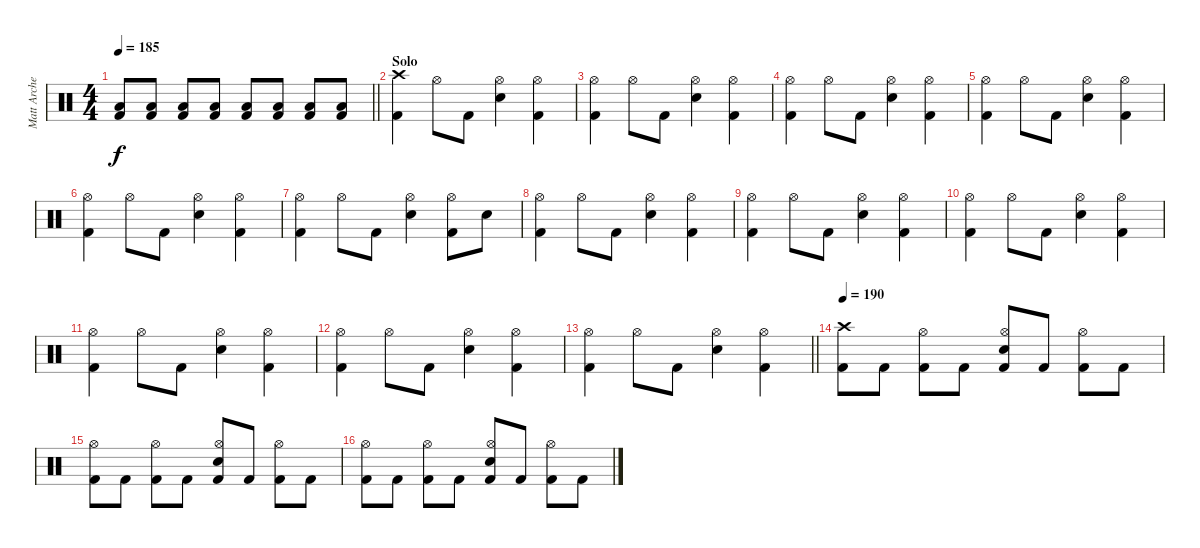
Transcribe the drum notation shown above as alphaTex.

\track ("Matt Archer" "Matt Arche") {instrument percussion}
\staff {score}
\articulation defaults
\ts (4 4)
\section ("" "")
\tempo 185
\clef neutral
\barLineRight lightlight
\ks c
("Low Tom (hit)" "Kick (hit) 2").8{dy f} ("Low Tom (hit)" "Kick (hit) 2").8 ("Low Tom (hit)" "Kick (hit) 2").8 ("Low Tom (hit)" "Kick (hit) 2").8 ("Low Tom (hit)" "Kick (hit) 2").8 ("Low Tom (hit)" "Kick (hit) 2").8 ("Low Tom (hit)" "Kick (hit) 2").8 ("Low Tom (hit)" "Kick (hit) 2").8 |
\section ("" "Solo")
("Crash high (hit)" "Kick (hit) 2").4 "Hi-Hat (open)".8 "Kick (hit) 2".8 ("Hi-Hat (open)" "Snare (hit) 2").4 ("Hi-Hat (open)" "Kick (hit) 2").4 |
("Hi-Hat (open)" "Kick (hit) 2").4 "Hi-Hat (open)".8 "Kick (hit) 2".8 ("Hi-Hat (open)" "Snare (hit) 2").4 ("Hi-Hat (open)" "Kick (hit) 2").4 |
("Hi-Hat (open)" "Kick (hit) 2").4 "Hi-Hat (open)".8 "Kick (hit) 2".8 ("Hi-Hat (open)" "Snare (hit) 2").4 ("Hi-Hat (open)" "Kick (hit) 2").4 |
("Hi-Hat (open)" "Kick (hit) 2").4 "Hi-Hat (open)".8 "Kick (hit) 2".8 ("Hi-Hat (open)" "Snare (hit) 2").4 ("Hi-Hat (open)" "Kick (hit) 2").4 |
("Hi-Hat (open)" "Kick (hit) 2").4 "Hi-Hat (open)".8 "Kick (hit) 2".8 ("Hi-Hat (open)" "Snare (hit) 2").4 ("Hi-Hat (open)" "Kick (hit) 2").4 |
("Hi-Hat (open)" "Kick (hit) 2").4 "Hi-Hat (open)".8 "Kick (hit) 2".8 ("Hi-Hat (open)" "Snare (hit) 2").4 ("Hi-Hat (open)" "Kick (hit) 2").8 "Snare (hit) 2".8 |
("Hi-Hat (open)" "Kick (hit) 2").4 "Hi-Hat (open)".8 "Kick (hit) 2".8 ("Hi-Hat (open)" "Snare (hit) 2").4 ("Hi-Hat (open)" "Kick (hit) 2").4 |
("Hi-Hat (open)" "Kick (hit) 2").4 "Hi-Hat (open)".8 "Kick (hit) 2".8 ("Hi-Hat (open)" "Snare (hit) 2").4 ("Hi-Hat (open)" "Kick (hit) 2").4 |
("Hi-Hat (open)" "Kick (hit) 2").4 "Hi-Hat (open)".8 "Kick (hit) 2".8 ("Hi-Hat (open)" "Snare (hit) 2").4 ("Hi-Hat (open)" "Kick (hit) 2").4 |
("Hi-Hat (open)" "Kick (hit) 2").4 "Hi-Hat (open)".8 "Kick (hit) 2".8 ("Hi-Hat (open)" "Snare (hit) 2").4 ("Hi-Hat (open)" "Kick (hit) 2").4 |
("Hi-Hat (open)" "Kick (hit) 2").4 "Hi-Hat (open)".8 "Kick (hit) 2".8 ("Hi-Hat (open)" "Snare (hit) 2").4 ("Hi-Hat (open)" "Kick (hit) 2").4 |
\barLineRight lightlight
("Hi-Hat (open)" "Kick (hit) 2").4 "Hi-Hat (open)".8 "Kick (hit) 2".8 ("Hi-Hat (open)" "Snare (hit) 2").4 ("Hi-Hat (open)" "Kick (hit) 2").4 |
\tempo 190
("Crash high (hit)" "Kick (hit) 2").8 "Kick (hit) 2".8 ("Hi-Hat (open)" "Kick (hit) 2").8 "Kick (hit) 2".8 ("Hi-Hat (open)" "Snare (hit) 2" "Kick (hit) 2").8 "Kick (hit) 2".8 ("Hi-Hat (open)" "Kick (hit) 2").8 "Kick (hit) 2".8 |
("Hi-Hat (open)" "Kick (hit) 2").8 "Kick (hit) 2".8 ("Hi-Hat (open)" "Kick (hit) 2").8 "Kick (hit) 2".8 ("Hi-Hat (open)" "Snare (hit) 2" "Kick (hit) 2").8 "Kick (hit) 2".8 ("Hi-Hat (open)" "Kick (hit) 2").8 "Kick (hit) 2".8 |
("Hi-Hat (open)" "Kick (hit) 2").8 "Kick (hit) 2".8 ("Hi-Hat (open)" "Kick (hit) 2").8 "Kick (hit) 2".8 ("Hi-Hat (open)" "Snare (hit) 2" "Kick (hit) 2").8 "Kick (hit) 2".8 ("Hi-Hat (open)" "Kick (hit) 2").8 "Kick (hit) 2".8
